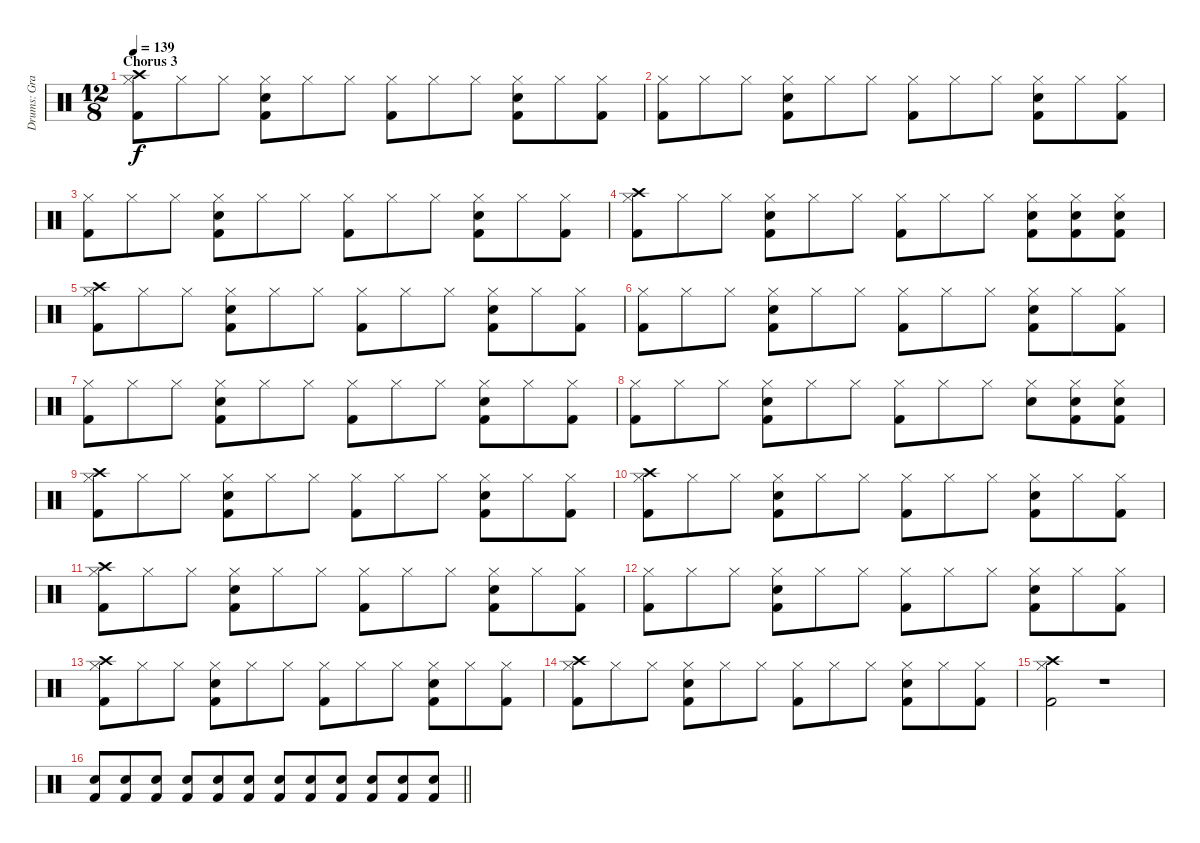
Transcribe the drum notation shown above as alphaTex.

\track ("Drums: Graeme Edge" "Drums: Gra") {instrument percussion}
\staff {score}
\articulation defaults
\ts (12 8)
\section ("" "Chorus 3")
\tempo 139
\clef neutral
\ks c
("Crash high (hit)" "Hi-Hat (closed)" "Kick (hit) 2").8{dy f} "Hi-Hat (closed)".8 "Hi-Hat (closed)".8 ("Hi-Hat (closed)" "Snare (hit) 2" "Kick (hit) 2").8 "Hi-Hat (closed)".8 "Hi-Hat (closed)".8 ("Hi-Hat (closed)" "Kick (hit) 2").8 "Hi-Hat (closed)".8 "Hi-Hat (closed)".8 ("Hi-Hat (closed)" "Snare (hit) 2" "Kick (hit) 2").8 "Hi-Hat (closed)".8 ("Hi-Hat (closed)" "Kick (hit) 2").8 |
("Hi-Hat (closed)" "Kick (hit) 2").8 "Hi-Hat (closed)".8 "Hi-Hat (closed)".8 ("Hi-Hat (closed)" "Snare (hit) 2" "Kick (hit) 2").8 "Hi-Hat (closed)".8 "Hi-Hat (closed)".8 ("Hi-Hat (closed)" "Kick (hit) 2").8 "Hi-Hat (closed)".8 "Hi-Hat (closed)".8 ("Hi-Hat (closed)" "Snare (hit) 2" "Kick (hit) 2").8 "Hi-Hat (closed)".8 ("Hi-Hat (closed)" "Kick (hit) 2").8 |
("Hi-Hat (closed)" "Kick (hit) 2").8 "Hi-Hat (closed)".8 "Hi-Hat (closed)".8 ("Hi-Hat (closed)" "Snare (hit) 2" "Kick (hit) 2").8 "Hi-Hat (closed)".8 "Hi-Hat (closed)".8 ("Hi-Hat (closed)" "Kick (hit) 2").8 "Hi-Hat (closed)".8 "Hi-Hat (closed)".8 ("Hi-Hat (closed)" "Snare (hit) 2" "Kick (hit) 2").8 "Hi-Hat (closed)".8 ("Hi-Hat (closed)" "Kick (hit) 2").8 |
("Crash high (hit)" "Hi-Hat (closed)" "Kick (hit) 2").8 "Hi-Hat (closed)".8 "Hi-Hat (closed)".8 ("Hi-Hat (closed)" "Snare (hit) 2" "Kick (hit) 2").8 "Hi-Hat (closed)".8 "Hi-Hat (closed)".8 ("Hi-Hat (closed)" "Kick (hit) 2").8 "Hi-Hat (closed)".8 "Hi-Hat (closed)".8 ("Hi-Hat (closed)" "Snare (hit) 2" "Kick (hit) 2").8 ("Hi-Hat (closed)" "Snare (hit) 2" "Kick (hit) 2").8 ("Hi-Hat (closed)" "Snare (hit) 2" "Kick (hit) 2").8 |
("Crash high (hit)" "Hi-Hat (closed)" "Kick (hit) 2").8 "Hi-Hat (closed)".8 "Hi-Hat (closed)".8 ("Hi-Hat (closed)" "Snare (hit) 2" "Kick (hit) 2").8 "Hi-Hat (closed)".8 "Hi-Hat (closed)".8 ("Hi-Hat (closed)" "Kick (hit) 2").8 "Hi-Hat (closed)".8 "Hi-Hat (closed)".8 ("Hi-Hat (closed)" "Snare (hit) 2" "Kick (hit) 2").8 "Hi-Hat (closed)".8 ("Hi-Hat (closed)" "Kick (hit) 2").8 |
("Hi-Hat (closed)" "Kick (hit) 2").8 "Hi-Hat (closed)".8 "Hi-Hat (closed)".8 ("Hi-Hat (closed)" "Snare (hit) 2" "Kick (hit) 2").8 "Hi-Hat (closed)".8 "Hi-Hat (closed)".8 ("Hi-Hat (closed)" "Kick (hit) 2").8 "Hi-Hat (closed)".8 "Hi-Hat (closed)".8 ("Hi-Hat (closed)" "Snare (hit) 2" "Kick (hit) 2").8 "Hi-Hat (closed)".8 ("Hi-Hat (closed)" "Kick (hit) 2").8 |
("Hi-Hat (closed)" "Kick (hit) 2").8 "Hi-Hat (closed)".8 "Hi-Hat (closed)".8 ("Hi-Hat (closed)" "Snare (hit) 2" "Kick (hit) 2").8 "Hi-Hat (closed)".8 "Hi-Hat (closed)".8 ("Hi-Hat (closed)" "Kick (hit) 2").8 "Hi-Hat (closed)".8 "Hi-Hat (closed)".8 ("Hi-Hat (closed)" "Snare (hit) 2" "Kick (hit) 2").8 "Hi-Hat (closed)".8 ("Hi-Hat (closed)" "Kick (hit) 2").8 |
("Hi-Hat (closed)" "Kick (hit) 2").8 "Hi-Hat (closed)".8 "Hi-Hat (closed)".8 ("Hi-Hat (closed)" "Snare (hit) 2" "Kick (hit) 2").8 "Hi-Hat (closed)".8 "Hi-Hat (closed)".8 ("Hi-Hat (closed)" "Kick (hit) 2").8 "Hi-Hat (closed)".8 "Hi-Hat (closed)".8 ("Hi-Hat (closed)" "Snare (hit) 2").8 ("Hi-Hat (closed)" "Snare (hit) 2" "Kick (hit) 2").8 ("Hi-Hat (closed)" "Snare (hit) 2" "Kick (hit) 2").8 |
("Crash high (hit)" "Hi-Hat (closed)" "Kick (hit) 2").8 "Hi-Hat (closed)".8 "Hi-Hat (closed)".8 ("Hi-Hat (closed)" "Snare (hit) 2" "Kick (hit) 2").8 "Hi-Hat (closed)".8 "Hi-Hat (closed)".8 ("Hi-Hat (closed)" "Kick (hit) 2").8 "Hi-Hat (closed)".8 "Hi-Hat (closed)".8 ("Hi-Hat (closed)" "Snare (hit) 2" "Kick (hit) 2").8 "Hi-Hat (closed)".8 ("Hi-Hat (closed)" "Kick (hit) 2").8 |
("Crash high (hit)" "Hi-Hat (closed)" "Kick (hit) 2").8 "Hi-Hat (closed)".8 "Hi-Hat (closed)".8 ("Hi-Hat (closed)" "Snare (hit) 2" "Kick (hit) 2").8 "Hi-Hat (closed)".8 "Hi-Hat (closed)".8 ("Hi-Hat (closed)" "Kick (hit) 2").8 "Hi-Hat (closed)".8 "Hi-Hat (closed)".8 ("Hi-Hat (closed)" "Snare (hit) 2" "Kick (hit) 2").8 "Hi-Hat (closed)".8 ("Hi-Hat (closed)" "Kick (hit) 2").8 |
("Crash high (hit)" "Hi-Hat (closed)" "Kick (hit) 2").8 "Hi-Hat (closed)".8 "Hi-Hat (closed)".8 ("Hi-Hat (closed)" "Snare (hit) 2" "Kick (hit) 2").8 "Hi-Hat (closed)".8 "Hi-Hat (closed)".8 ("Hi-Hat (closed)" "Kick (hit) 2").8 "Hi-Hat (closed)".8 "Hi-Hat (closed)".8 ("Hi-Hat (closed)" "Snare (hit) 2" "Kick (hit) 2").8 "Hi-Hat (closed)".8 ("Hi-Hat (closed)" "Kick (hit) 2").8 |
("Hi-Hat (closed)" "Kick (hit) 2").8 "Hi-Hat (closed)".8 "Hi-Hat (closed)".8 ("Hi-Hat (closed)" "Snare (hit) 2" "Kick (hit) 2").8 "Hi-Hat (closed)".8 "Hi-Hat (closed)".8 ("Hi-Hat (closed)" "Kick (hit) 2").8 "Hi-Hat (closed)".8 "Hi-Hat (closed)".8 ("Hi-Hat (closed)" "Snare (hit) 2" "Kick (hit) 2").8 "Hi-Hat (closed)".8 ("Hi-Hat (closed)" "Kick (hit) 2").8 |
("Crash high (hit)" "Hi-Hat (closed)" "Kick (hit) 2").8 "Hi-Hat (closed)".8 "Hi-Hat (closed)".8 ("Hi-Hat (closed)" "Snare (hit) 2" "Kick (hit) 2").8 "Hi-Hat (closed)".8 "Hi-Hat (closed)".8 ("Hi-Hat (closed)" "Kick (hit) 2").8 "Hi-Hat (closed)".8 "Hi-Hat (closed)".8 ("Hi-Hat (closed)" "Snare (hit) 2" "Kick (hit) 2").8 "Hi-Hat (closed)".8 ("Hi-Hat (closed)" "Kick (hit) 2").8 |
("Crash high (hit)" "Hi-Hat (closed)" "Kick (hit) 2").8 "Hi-Hat (closed)".8 "Hi-Hat (closed)".8 ("Hi-Hat (closed)" "Snare (hit) 2" "Kick (hit) 2").8 "Hi-Hat (closed)".8 "Hi-Hat (closed)".8 ("Hi-Hat (closed)" "Kick (hit) 2").8 "Hi-Hat (closed)".8 "Hi-Hat (closed)".8 ("Hi-Hat (closed)" "Snare (hit) 2" "Kick (hit) 2").8 "Hi-Hat (closed)".8 ("Hi-Hat (closed)" "Kick (hit) 2").8 |
("Hi-Hat (closed)" "Kick (hit) 2" "Crash high (hit)").2 r.1 |
\barLineRight lightlight
("Snare (hit) 2" "Kick (hit) 2").8 ("Snare (hit) 2" "Kick (hit) 2").8 ("Snare (hit) 2" "Kick (hit) 2").8 ("Snare (hit) 2" "Kick (hit) 2").8 ("Snare (hit) 2" "Kick (hit) 2").8 ("Snare (hit) 2" "Kick (hit) 2").8 ("Snare (hit) 2" "Kick (hit) 2").8 ("Snare (hit) 2" "Kick (hit) 2").8 ("Snare (hit) 2" "Kick (hit) 2").8 ("Snare (hit) 2" "Kick (hit) 2").8 ("Snare (hit) 2" "Kick (hit) 2").8 ("Snare (hit) 2" "Kick (hit) 2").8
